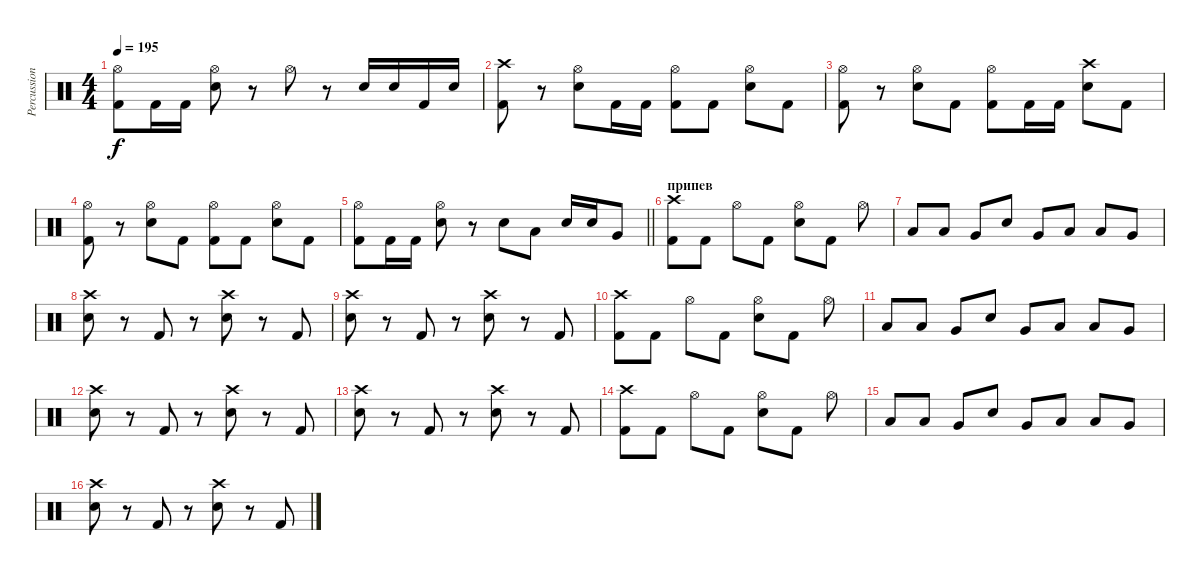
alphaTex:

\track ("Percussions" "Percussion") {instrument percussion}
\staff {score}
\articulation defaults
\ts (4 4)
\tempo 195
\clef neutral
\ks c
("Hi-Hat (open)" "Kick (hit) 2").8{dy f} "Kick (hit) 2".16 "Kick (hit) 2".16 ("Hi-Hat (open)" "Electric Snare (hit)").8 r.8 "Hi-Hat (open)".8 r.8 "Electric Snare (hit)".16 "Electric Snare (hit)".16 "Kick (hit) 2".16 "Electric Snare (hit)".16 |
("Crash high (hit)" "Kick (hit) 2").8 r.8 ("Hi-Hat (open)" "Electric Snare (hit)").8 "Kick (hit) 2".16 "Kick (hit) 2".16 ("Hi-Hat (open)" "Kick (hit) 2").8 "Kick (hit) 2".8 ("Hi-Hat (open)" "Electric Snare (hit)").8 "Kick (hit) 2".8 |
("Hi-Hat (open)" "Kick (hit) 2").8 r.8 ("Hi-Hat (open)" "Electric Snare (hit)").8 "Kick (hit) 2".8 ("Hi-Hat (open)" "Kick (hit) 2").8 "Kick (hit) 2".16 "Kick (hit) 2".16 ("Crash high (hit)" "Electric Snare (hit)").8 "Kick (hit) 2".8 |
("Hi-Hat (open)" "Kick (hit) 2").8 r.8 ("Hi-Hat (open)" "Electric Snare (hit)").8 "Kick (hit) 2".8 ("Hi-Hat (open)" "Kick (hit) 2").8 "Kick (hit) 2".8 ("Hi-Hat (open)" "Electric Snare (hit)").8 "Kick (hit) 2".8 |
\barLineRight lightlight
("Hi-Hat (open)" "Kick (hit) 2").8 "Kick (hit) 2".16 "Kick (hit) 2".16 ("Hi-Hat (open)" "Electric Snare (hit)").8 r.8 "Electric Snare (hit)".8 "Low Floor Tom (hit)".8 "Electric Snare (hit)".16 "Electric Snare (hit)".16 "Very Low Tom (hit)".8 |
\section ("" "припев")
("Crash high (hit)" "Kick (hit) 2").8 "Kick (hit) 2".8 "Hi-Hat (open)".8 "Kick (hit) 2".8 ("Hi-Hat (open)" "Electric Snare (hit)").8 "Kick (hit) 2".8 "Hi-Hat (open)".8 |
"Low Floor Tom (hit)".8 "Low Floor Tom (hit)".8 "Very Low Tom (hit)".8 "Electric Snare (hit)".8 "Very Low Tom (hit)".8 "Low Floor Tom (hit)".8 "Low Floor Tom (hit)".8 "Very Low Tom (hit)".8 |
("Crash high (hit)" "Electric Snare (hit)").8 r.8 "Kick (hit) 2".8 r.8 ("Crash high (hit)" "Electric Snare (hit)").8 r.8 "Kick (hit) 2".8 |
("Crash high (hit)" "Electric Snare (hit)").8 r.8 "Kick (hit) 2".8 r.8 ("Crash high (hit)" "Electric Snare (hit)").8 r.8 "Kick (hit) 2".8 |
("Crash high (hit)" "Kick (hit) 2").8 "Kick (hit) 2".8 "Hi-Hat (open)".8 "Kick (hit) 2".8 ("Hi-Hat (open)" "Electric Snare (hit)").8 "Kick (hit) 2".8 "Hi-Hat (open)".8 |
"Low Floor Tom (hit)".8 "Low Floor Tom (hit)".8 "Very Low Tom (hit)".8 "Electric Snare (hit)".8 "Very Low Tom (hit)".8 "Low Floor Tom (hit)".8 "Low Floor Tom (hit)".8 "Very Low Tom (hit)".8 |
("Crash high (hit)" "Electric Snare (hit)").8 r.8 "Kick (hit) 2".8 r.8 ("Crash high (hit)" "Electric Snare (hit)").8 r.8 "Kick (hit) 2".8 |
("Crash high (hit)" "Electric Snare (hit)").8 r.8 "Kick (hit) 2".8 r.8 ("Crash high (hit)" "Electric Snare (hit)").8 r.8 "Kick (hit) 2".8 |
("Crash high (hit)" "Kick (hit) 2").8 "Kick (hit) 2".8 "Hi-Hat (open)".8 "Kick (hit) 2".8 ("Hi-Hat (open)" "Electric Snare (hit)").8 "Kick (hit) 2".8 "Hi-Hat (open)".8 |
"Low Floor Tom (hit)".8 "Low Floor Tom (hit)".8 "Very Low Tom (hit)".8 "Electric Snare (hit)".8 "Very Low Tom (hit)".8 "Low Floor Tom (hit)".8 "Low Floor Tom (hit)".8 "Very Low Tom (hit)".8 |
("Crash high (hit)" "Electric Snare (hit)").8 r.8 "Kick (hit) 2".8 r.8 ("Crash high (hit)" "Electric Snare (hit)").8 r.8 "Kick (hit) 2".8
